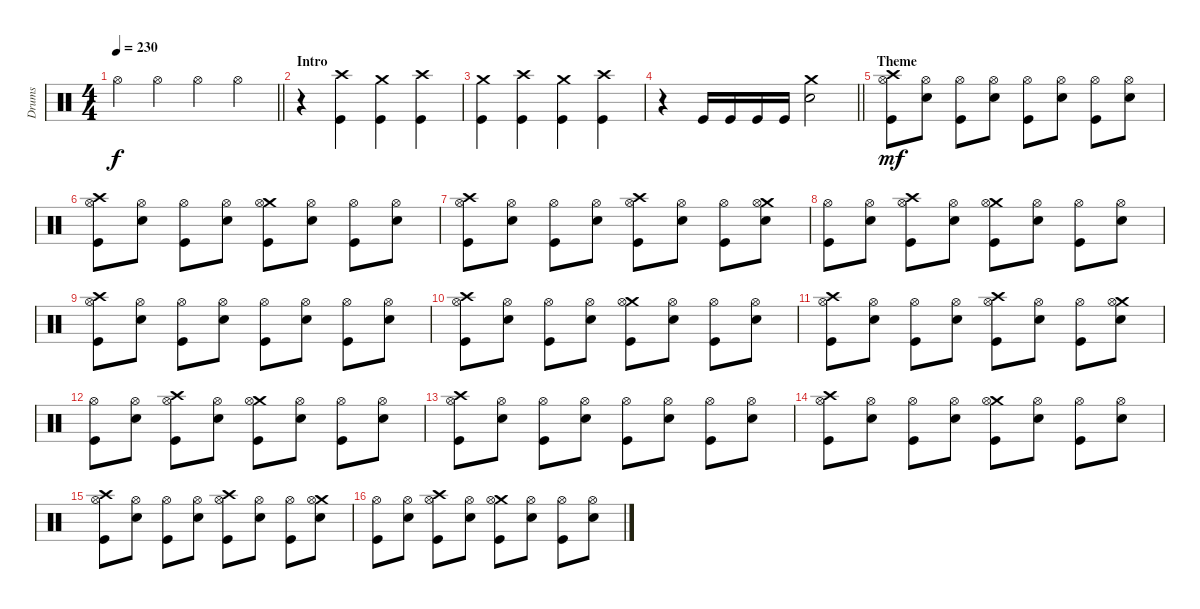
\track ("Drums" "Drums") {instrument percussion}
\staff {score}
\articulation defaults
\ts (4 4)
\tempo 230
\clef neutral
\barLineRight lightlight
\ks c "Hi-Hat (open)".4{dy f} "Hi-Hat (open)".4 "Hi-Hat (open)".4 "Hi-Hat (open)".4
|
\section ("" "Intro")
r.4 ("Crash high (hit)" "Kick (hit)").4 ("Crash medium (hit)" "Kick (hit)").4 ("Crash high (hit)" "Kick (hit)").4 |
("Crash medium (hit)" "Kick (hit)").4 ("Crash high (hit)" "Kick (hit)").4 ("Crash medium (hit)" "Kick (hit)").4 ("Crash high (hit)" "Kick (hit)").4 |
\barLineRight lightlight
r.4 "Kick (hit)".16 "Kick (hit)".16 "Kick (hit)".16 "Kick (hit)".16 ("Crash medium (hit)" "Electric Snare (hit)").2 |
\section ("" "Theme")
("Crash high (hit)" "Hi-Hat (open)" "Kick (hit)").8{dy mf} ("Hi-Hat (open)" "Electric Snare (hit)").8 ("Hi-Hat (open)" "Kick (hit)").8 ("Hi-Hat (open)" "Electric Snare (hit)").8 ("Hi-Hat (open)" "Kick (hit)").8 ("Hi-Hat (open)" "Electric Snare (hit)").8 ("Hi-Hat (open)" "Kick (hit)").8 ("Hi-Hat (open)" "Electric Snare (hit)").8 |
("Crash high (hit)" "Hi-Hat (open)" "Kick (hit)").8 ("Hi-Hat (open)" "Electric Snare (hit)").8 ("Hi-Hat (open)" "Kick (hit)").8 ("Hi-Hat (open)" "Electric Snare (hit)").8 ("Crash medium (hit)" "Hi-Hat (open)" "Kick (hit)").8 ("Hi-Hat (open)" "Electric Snare (hit)").8 ("Hi-Hat (open)" "Kick (hit)").8 ("Hi-Hat (open)" "Electric Snare (hit)").8 |
("Crash high (hit)" "Hi-Hat (open)" "Kick (hit)").8 ("Hi-Hat (open)" "Electric Snare (hit)").8 ("Hi-Hat (open)" "Kick (hit)").8 ("Hi-Hat (open)" "Electric Snare (hit)").8 ("Crash high (hit)" "Hi-Hat (open)" "Kick (hit)").8 ("Hi-Hat (open)" "Electric Snare (hit)").8 ("Hi-Hat (open)" "Kick (hit)").8 ("Crash medium (hit)" "Hi-Hat (open)" "Electric Snare (hit)").8 |
("Hi-Hat (open)" "Kick (hit)").8 ("Hi-Hat (open)" "Electric Snare (hit)").8 ("Crash high (hit)" "Hi-Hat (open)" "Kick (hit)").8 ("Hi-Hat (open)" "Electric Snare (hit)").8 ("Crash medium (hit)" "Hi-Hat (open)" "Kick (hit)").8 ("Hi-Hat (open)" "Electric Snare (hit)").8 ("Hi-Hat (open)" "Kick (hit)").8 ("Hi-Hat (open)" "Electric Snare (hit)").8 |
("Crash high (hit)" "Hi-Hat (open)" "Kick (hit)").8 ("Hi-Hat (open)" "Electric Snare (hit)").8 ("Hi-Hat (open)" "Kick (hit)").8 ("Hi-Hat (open)" "Electric Snare (hit)").8 ("Hi-Hat (open)" "Kick (hit)").8 ("Hi-Hat (open)" "Electric Snare (hit)").8 ("Hi-Hat (open)" "Kick (hit)").8 ("Hi-Hat (open)" "Electric Snare (hit)").8 |
("Crash high (hit)" "Hi-Hat (open)" "Kick (hit)").8 ("Hi-Hat (open)" "Electric Snare (hit)").8 ("Hi-Hat (open)" "Kick (hit)").8 ("Hi-Hat (open)" "Electric Snare (hit)").8 ("Crash medium (hit)" "Hi-Hat (open)" "Kick (hit)").8 ("Hi-Hat (open)" "Electric Snare (hit)").8 ("Hi-Hat (open)" "Kick (hit)").8 ("Hi-Hat (open)" "Electric Snare (hit)").8 |
("Crash high (hit)" "Hi-Hat (open)" "Kick (hit)").8 ("Hi-Hat (open)" "Electric Snare (hit)").8 ("Hi-Hat (open)" "Kick (hit)").8 ("Hi-Hat (open)" "Electric Snare (hit)").8 ("Crash high (hit)" "Hi-Hat (open)" "Kick (hit)").8 ("Hi-Hat (open)" "Electric Snare (hit)").8 ("Hi-Hat (open)" "Kick (hit)").8 ("Crash medium (hit)" "Hi-Hat (open)" "Electric Snare (hit)").8 |
("Hi-Hat (open)" "Kick (hit)").8 ("Hi-Hat (open)" "Electric Snare (hit)").8 ("Crash high (hit)" "Hi-Hat (open)" "Kick (hit)").8 ("Hi-Hat (open)" "Electric Snare (hit)").8 ("Crash medium (hit)" "Hi-Hat (open)" "Kick (hit)").8 ("Hi-Hat (open)" "Electric Snare (hit)").8 ("Hi-Hat (open)" "Kick (hit)").8 ("Hi-Hat (open)" "Electric Snare (hit)").8 |
("Crash high (hit)" "Hi-Hat (open)" "Kick (hit)").8 ("Hi-Hat (open)" "Electric Snare (hit)").8 ("Hi-Hat (open)" "Kick (hit)").8 ("Hi-Hat (open)" "Electric Snare (hit)").8 ("Hi-Hat (open)" "Kick (hit)").8 ("Hi-Hat (open)" "Electric Snare (hit)").8 ("Hi-Hat (open)" "Kick (hit)").8 ("Hi-Hat (open)" "Electric Snare (hit)").8 |
("Crash high (hit)" "Hi-Hat (open)" "Kick (hit)").8 ("Hi-Hat (open)" "Electric Snare (hit)").8 ("Hi-Hat (open)" "Kick (hit)").8 ("Hi-Hat (open)" "Electric Snare (hit)").8 ("Crash medium (hit)" "Hi-Hat (open)" "Kick (hit)").8 ("Hi-Hat (open)" "Electric Snare (hit)").8 ("Hi-Hat (open)" "Kick (hit)").8 ("Hi-Hat (open)" "Electric Snare (hit)").8 |
("Crash high (hit)" "Hi-Hat (open)" "Kick (hit)").8 ("Hi-Hat (open)" "Electric Snare (hit)").8 ("Hi-Hat (open)" "Kick (hit)").8 ("Hi-Hat (open)" "Electric Snare (hit)").8 ("Crash high (hit)" "Hi-Hat (open)" "Kick (hit)").8 ("Hi-Hat (open)" "Electric Snare (hit)").8 ("Hi-Hat (open)" "Kick (hit)").8 ("Crash medium (hit)" "Hi-Hat (open)" "Electric Snare (hit)").8 |
("Hi-Hat (open)" "Kick (hit)").8 ("Hi-Hat (open)" "Electric Snare (hit)").8 ("Crash high (hit)" "Hi-Hat (open)" "Kick (hit)").8 ("Hi-Hat (open)" "Electric Snare (hit)").8 ("Crash medium (hit)" "Hi-Hat (open)" "Kick (hit)").8 ("Hi-Hat (open)" "Electric Snare (hit)").8 ("Hi-Hat (open)" "Kick (hit)").8 ("Hi-Hat (open)" "Electric Snare (hit)").8
